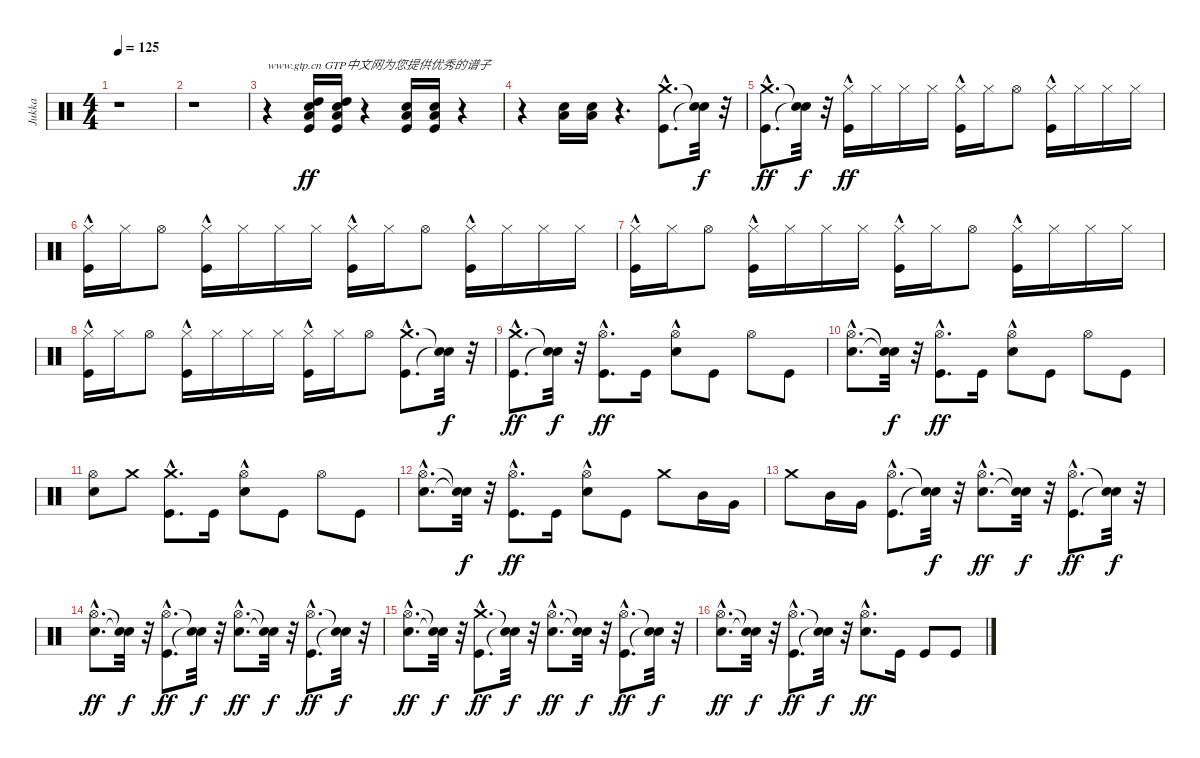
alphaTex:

\track ("Jukka" "Jukka") {instrument percussion}
\staff {score}
\articulation defaults
\ts (4 4)
\tempo 125
\clef neutral
\ks c
r.1{dy ff} |
r.1 |
r.4{txt "www.gtp.cn GTP中文网为您提供优秀的谱子"} ("Kick (hit)" "Electric Snare (hit)" "Low Tom (hit)" "High Tom (hit)").16 ("Kick (hit)" "Electric Snare (hit)" "Low Tom (hit)" "High Tom (hit)").16 r.4 ("Kick (hit)" "Electric Snare (hit)" "Low Tom (hit)").16 ("Kick (hit)" "Electric Snare (hit)" "Low Tom (hit)").16 r.4 |
r.4 ("Electric Snare (hit)" "Low Tom (hit)").16 ("Electric Snare (hit)" "Low Tom (hit)").16 r.4{d} ("Kick (hit)"{hac} "Crash medium (hit)"{hac}).8{d} ("Snare (hit)"{t} "Snare (hit)"{t}).32{dy f} r.32 |
("Kick (hit)"{hac} "Crash medium (hit)"{hac}).8{d dy ff} ("Snare (hit)"{t} "Snare (hit)"{t}).32{dy f} r.32 ("Kick (hit)"{hac} "Hi-Hat (closed)").16{dy ff} "Hi-Hat (closed)".16 "Hi-Hat (closed)".16 "Hi-Hat (closed)".16 ("Kick (hit)"{hac} "Hi-Hat (closed)").16 "Hi-Hat (closed)".16 "Hi-Hat (open)".8 ("Kick (hit)"{hac} "Hi-Hat (closed)").16 "Hi-Hat (closed)".16 "Hi-Hat (closed)".16 "Hi-Hat (closed)".16 |
("Kick (hit)"{hac} "Hi-Hat (closed)").16 "Hi-Hat (closed)".16 "Hi-Hat (open)".8 ("Kick (hit)"{hac} "Hi-Hat (closed)").16 "Hi-Hat (closed)".16 "Hi-Hat (closed)".16 "Hi-Hat (closed)".16 ("Kick (hit)"{hac} "Hi-Hat (closed)").16 "Hi-Hat (closed)".16 "Hi-Hat (open)".8 ("Kick (hit)"{hac} "Hi-Hat (closed)").16 "Hi-Hat (closed)".16 "Hi-Hat (closed)".16 "Hi-Hat (closed)".16 |
("Kick (hit)"{hac} "Hi-Hat (closed)").16 "Hi-Hat (closed)".16 "Hi-Hat (open)".8 ("Kick (hit)"{hac} "Hi-Hat (closed)").16 "Hi-Hat (closed)".16 "Hi-Hat (closed)".16 "Hi-Hat (closed)".16 ("Kick (hit)"{hac} "Hi-Hat (closed)").16 "Hi-Hat (closed)".16 "Hi-Hat (open)".8 ("Kick (hit)"{hac} "Hi-Hat (closed)").16 "Hi-Hat (closed)".16 "Hi-Hat (closed)".16 "Hi-Hat (closed)".16 |
("Kick (hit)"{hac} "Hi-Hat (closed)").16 "Hi-Hat (closed)".16 "Hi-Hat (open)".8 ("Kick (hit)"{hac} "Hi-Hat (closed)").16 "Hi-Hat (closed)".16 "Hi-Hat (closed)".16 "Hi-Hat (closed)".16 ("Kick (hit)"{hac} "Hi-Hat (closed)").16 "Hi-Hat (closed)".16 "Hi-Hat (open)".8 ("Kick (hit)"{hac} "Crash medium (hit)"{hac}).8{d} ("Snare (hit)"{t} "Snare (hit)"{t}).32{dy f} r.32 |
("Kick (hit)"{hac} "Crash medium (hit)"{hac}).8{d dy ff} ("Snare (hit)"{t} "Snare (hit)"{t}).32{dy f} r.32 ("Kick (hit)"{hac} "Hi-Hat (open)"{hac}).8{d dy ff} "Kick (hit)".16 ("Electric Snare (hit)" "Hi-Hat (open)"{hac}).8 "Kick (hit)".8 "Hi-Hat (open)".8 "Kick (hit)".8 |
("Electric Snare (hit)"{hac} "Hi-Hat (open)"{hac}).8{d} ("Snare (hit)"{t} "Snare (hit)"{t}).32{dy f} r.32 ("Kick (hit)"{hac} "Hi-Hat (open)"{hac}).8{d dy ff} "Kick (hit)".16 ("Electric Snare (hit)" "Hi-Hat (open)"{hac}).8 "Kick (hit)".8 "Hi-Hat (open)".8 "Kick (hit)".8 |
("Electric Snare (hit)" "Hi-Hat (open)").8 "Crash medium (hit)".8 ("Kick (hit)"{hac} "Crash medium (hit)"{hac}).8{d} "Kick (hit)".16 ("Electric Snare (hit)" "Hi-Hat (open)"{hac}).8 "Kick (hit)".8 "Hi-Hat (open)".8 "Kick (hit)".8 |
("Electric Snare (hit)"{hac} "Hi-Hat (open)"{hac}).8{d} ("Snare (hit)"{t} "Snare (hit)"{t}).32{dy f} r.32 ("Kick (hit)"{hac} "Hi-Hat (open)"{hac}).8{d dy ff} "Kick (hit)".16 ("Electric Snare (hit)" "Hi-Hat (open)"{hac}).8 "Kick (hit)".8 "Crash medium (hit)".8 "Mid Tom (hit)".16 "Very Low Tom (hit)".16 |
"Crash medium (hit)".8 "Mid Tom (hit)".16 "Very Low Tom (hit)".16 ("Kick (hit)"{hac} "Hi-Hat (open)"{hac}).8{d} ("Snare (hit)"{t} "Snare (hit)"{t}).32{dy f} r.32 ("Electric Snare (hit)"{hac} "Hi-Hat (open)"{hac}).8{d dy ff} ("Snare (hit)"{t} "Snare (hit)"{t}).32{dy f} r.32 ("Kick (hit)"{hac} "Hi-Hat (open)"{hac}).8{d dy ff} ("Snare (hit)"{t} "Snare (hit)"{t}).32{dy f} r.32 |
("Electric Snare (hit)"{hac} "Hi-Hat (open)"{hac}).8{d dy ff} ("Snare (hit)"{t} "Snare (hit)"{t}).32{dy f} r.32 ("Kick (hit)"{hac} "Hi-Hat (open)"{hac}).8{d dy ff} ("Snare (hit)"{t} "Snare (hit)"{t}).32{dy f} r.32 ("Electric Snare (hit)"{hac} "Hi-Hat (open)"{hac}).8{d dy ff} ("Snare (hit)"{t} "Snare (hit)"{t}).32{dy f} r.32 ("Kick (hit)"{hac} "Hi-Hat (open)"{hac}).8{d dy ff} ("Snare (hit)"{t} "Snare (hit)"{t}).32{dy f} r.32 |
("Electric Snare (hit)"{hac} "Hi-Hat (open)"{hac}).8{d dy ff} ("Snare (hit)"{t} "Snare (hit)"{t}).32{dy f} r.32 ("Kick (hit)"{hac} "Crash medium (hit)"{hac}).8{d dy ff} ("Snare (hit)"{t} "Snare (hit)"{t}).32{dy f} r.32 ("Electric Snare (hit)"{hac} "Hi-Hat (open)"{hac}).8{d dy ff} ("Snare (hit)"{t} "Snare (hit)"{t}).32{dy f} r.32 ("Kick (hit)"{hac} "Hi-Hat (open)"{hac}).8{d dy ff} ("Snare (hit)"{t} "Snare (hit)"{t}).32{dy f} r.32 |
("Electric Snare (hit)"{hac} "Hi-Hat (open)"{hac}).8{d dy ff} ("Snare (hit)"{t} "Snare (hit)"{t}).32{dy f} r.32 ("Kick (hit)"{hac} "Hi-Hat (open)"{hac}).8{d dy ff} ("Snare (hit)"{t} "Snare (hit)"{t}).32{dy f} r.32 ("Electric Snare (hit)"{hac} "Hi-Hat (open)"{hac}).8{d dy ff} "Kick (hit)".16 "Kick (hit)".8 "Kick (hit)".8
